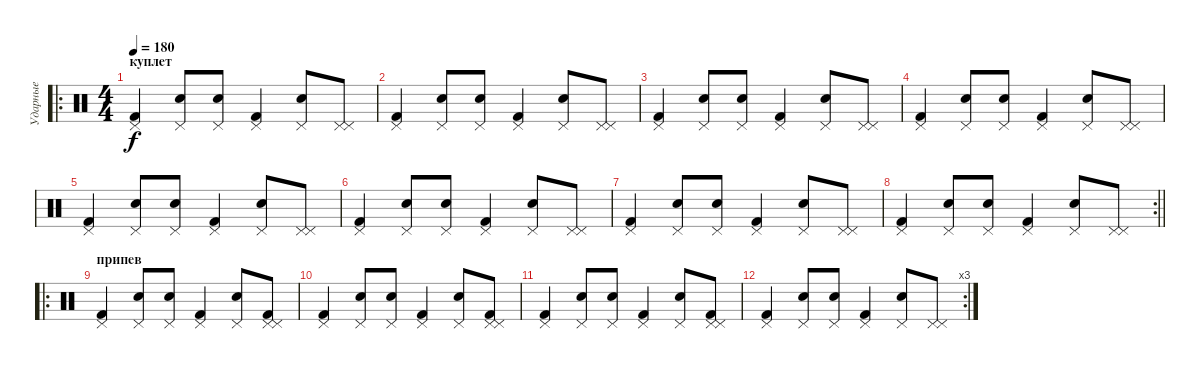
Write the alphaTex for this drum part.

\track ("Ударные" "Ударные") {instrument percussion}
\staff {score}
\articulation defaults
\ro
\ts (4 4)
\section ("" "куплет")
\tempo 180
\clef neutral
\ks c
("Kick (hit) 2" "Pedal Hi-Hat (hit)").4{dy f} ("Electric Snare (hit)" "Pedal Hi-Hat (hit)").8 ("Electric Snare (hit)" "Pedal Hi-Hat (hit)").8 ("Kick (hit) 2" "Pedal Hi-Hat (hit)").4 ("Electric Snare (hit)" "Pedal Hi-Hat (hit)").8 ("Pedal Hi-Hat (hit)" "Pedal Hi-Hat (hit)").8 |
("Kick (hit) 2" "Pedal Hi-Hat (hit)").4 ("Electric Snare (hit)" "Pedal Hi-Hat (hit)").8 ("Electric Snare (hit)" "Pedal Hi-Hat (hit)").8 ("Kick (hit) 2" "Pedal Hi-Hat (hit)").4 ("Electric Snare (hit)" "Pedal Hi-Hat (hit)").8 ("Pedal Hi-Hat (hit)" "Pedal Hi-Hat (hit)").8 |
("Kick (hit) 2" "Pedal Hi-Hat (hit)").4 ("Electric Snare (hit)" "Pedal Hi-Hat (hit)").8 ("Electric Snare (hit)" "Pedal Hi-Hat (hit)").8 ("Kick (hit) 2" "Pedal Hi-Hat (hit)").4 ("Electric Snare (hit)" "Pedal Hi-Hat (hit)").8 ("Pedal Hi-Hat (hit)" "Pedal Hi-Hat (hit)").8 |
("Kick (hit) 2" "Pedal Hi-Hat (hit)").4 ("Electric Snare (hit)" "Pedal Hi-Hat (hit)").8 ("Electric Snare (hit)" "Pedal Hi-Hat (hit)").8 ("Kick (hit) 2" "Pedal Hi-Hat (hit)").4 ("Electric Snare (hit)" "Pedal Hi-Hat (hit)").8 ("Pedal Hi-Hat (hit)" "Pedal Hi-Hat (hit)").8 |
("Kick (hit) 2" "Pedal Hi-Hat (hit)").4 ("Electric Snare (hit)" "Pedal Hi-Hat (hit)").8 ("Electric Snare (hit)" "Pedal Hi-Hat (hit)").8 ("Kick (hit) 2" "Pedal Hi-Hat (hit)").4 ("Electric Snare (hit)" "Pedal Hi-Hat (hit)").8 ("Pedal Hi-Hat (hit)" "Pedal Hi-Hat (hit)").8 |
("Kick (hit) 2" "Pedal Hi-Hat (hit)").4 ("Electric Snare (hit)" "Pedal Hi-Hat (hit)").8 ("Electric Snare (hit)" "Pedal Hi-Hat (hit)").8 ("Kick (hit) 2" "Pedal Hi-Hat (hit)").4 ("Electric Snare (hit)" "Pedal Hi-Hat (hit)").8 ("Pedal Hi-Hat (hit)" "Pedal Hi-Hat (hit)").8 |
("Kick (hit) 2" "Pedal Hi-Hat (hit)").4 ("Electric Snare (hit)" "Pedal Hi-Hat (hit)").8 ("Electric Snare (hit)" "Pedal Hi-Hat (hit)").8 ("Kick (hit) 2" "Pedal Hi-Hat (hit)").4 ("Electric Snare (hit)" "Pedal Hi-Hat (hit)").8 ("Pedal Hi-Hat (hit)" "Pedal Hi-Hat (hit)").8 |
\rc 2
\barLineRight lightlight
("Kick (hit) 2" "Pedal Hi-Hat (hit)").4 ("Electric Snare (hit)" "Pedal Hi-Hat (hit)").8 ("Electric Snare (hit)" "Pedal Hi-Hat (hit)").8 ("Kick (hit) 2" "Pedal Hi-Hat (hit)").4 ("Electric Snare (hit)" "Pedal Hi-Hat (hit)").8 ("Pedal Hi-Hat (hit)" "Pedal Hi-Hat (hit)").8 |
\ro
\section ("" "припев")
("Kick (hit) 2" "Pedal Hi-Hat (hit)").4 ("Electric Snare (hit)" "Pedal Hi-Hat (hit)").8 ("Electric Snare (hit)" "Pedal Hi-Hat (hit)").8 ("Kick (hit) 2" "Pedal Hi-Hat (hit)").4 ("Electric Snare (hit)" "Pedal Hi-Hat (hit)").8 ("Kick (hit) 2" "Pedal Hi-Hat (hit)" "Pedal Hi-Hat (hit)").8 |
("Kick (hit) 2" "Pedal Hi-Hat (hit)").4 ("Electric Snare (hit)" "Pedal Hi-Hat (hit)").8 ("Electric Snare (hit)" "Pedal Hi-Hat (hit)").8 ("Kick (hit) 2" "Pedal Hi-Hat (hit)").4 ("Electric Snare (hit)" "Pedal Hi-Hat (hit)").8 ("Kick (hit) 2" "Pedal Hi-Hat (hit)" "Pedal Hi-Hat (hit)").8 |
("Kick (hit) 2" "Pedal Hi-Hat (hit)").4 ("Electric Snare (hit)" "Pedal Hi-Hat (hit)").8 ("Electric Snare (hit)" "Pedal Hi-Hat (hit)").8 ("Kick (hit) 2" "Pedal Hi-Hat (hit)").4 ("Electric Snare (hit)" "Pedal Hi-Hat (hit)").8 ("Kick (hit) 2" "Pedal Hi-Hat (hit)" "Pedal Hi-Hat (hit)").8 |
\rc 3
("Kick (hit) 2" "Pedal Hi-Hat (hit)").4 ("Electric Snare (hit)" "Pedal Hi-Hat (hit)").8 ("Electric Snare (hit)" "Pedal Hi-Hat (hit)").8 ("Kick (hit) 2" "Pedal Hi-Hat (hit)").4 ("Electric Snare (hit)" "Pedal Hi-Hat (hit)").8 ("Pedal Hi-Hat (hit)" "Pedal Hi-Hat (hit)").8
